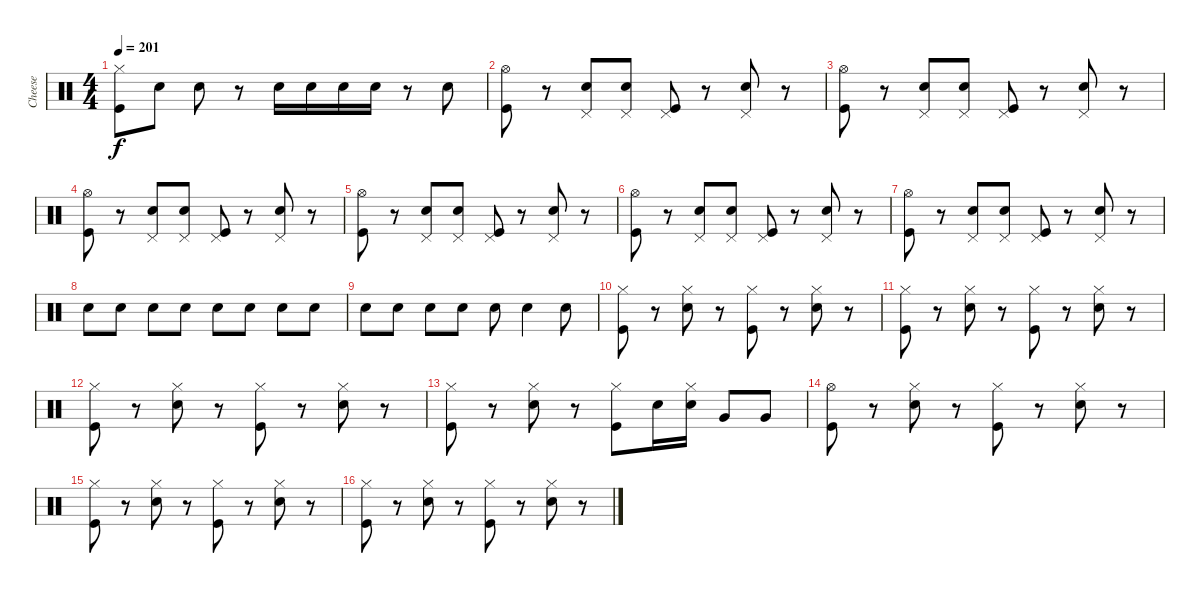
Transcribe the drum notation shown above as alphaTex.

\track ("Cheese" "Cheese") {instrument percussion}
\staff {score}
\articulation defaults
\ts (4 4)
\tempo 201
\clef neutral
\ks c
("Hi-Hat (closed)" "Kick (hit)").8{dy f} "Snare (hit) 2".8 "Snare (hit) 2".8 r.8 "Snare (hit) 2".16 "Snare (hit) 2".16 "Snare (hit) 2".16 "Snare (hit) 2".16 r.8 "Snare (hit) 2".8 |
("Hi-Hat (open)" "Kick (hit)").8 r.8 ("Pedal Hi-Hat (hit)" "Snare (hit) 2").8 ("Pedal Hi-Hat (hit)" "Snare (hit) 2").8 ("Pedal Hi-Hat (hit)" "Kick (hit)").8 r.8 ("Pedal Hi-Hat (hit)" "Snare (hit) 2").8 r.8 |
("Hi-Hat (open)" "Kick (hit)").8 r.8 ("Pedal Hi-Hat (hit)" "Snare (hit) 2").8 ("Pedal Hi-Hat (hit)" "Snare (hit) 2").8 ("Pedal Hi-Hat (hit)" "Kick (hit)").8 r.8 ("Pedal Hi-Hat (hit)" "Snare (hit) 2").8 r.8 |
("Hi-Hat (open)" "Kick (hit)").8 r.8 ("Pedal Hi-Hat (hit)" "Snare (hit) 2").8 ("Pedal Hi-Hat (hit)" "Snare (hit) 2").8 ("Pedal Hi-Hat (hit)" "Kick (hit)").8 r.8 ("Pedal Hi-Hat (hit)" "Snare (hit) 2").8 r.8 |
("Hi-Hat (open)" "Kick (hit)").8 r.8 ("Pedal Hi-Hat (hit)" "Snare (hit) 2").8 ("Pedal Hi-Hat (hit)" "Snare (hit) 2").8 ("Pedal Hi-Hat (hit)" "Kick (hit)").8 r.8 ("Pedal Hi-Hat (hit)" "Snare (hit) 2").8 r.8 |
("Hi-Hat (open)" "Kick (hit)").8 r.8 ("Pedal Hi-Hat (hit)" "Snare (hit) 2").8 ("Pedal Hi-Hat (hit)" "Snare (hit) 2").8 ("Pedal Hi-Hat (hit)" "Kick (hit)").8 r.8 ("Pedal Hi-Hat (hit)" "Snare (hit) 2").8 r.8 |
("Hi-Hat (open)" "Kick (hit)").8 r.8 ("Pedal Hi-Hat (hit)" "Snare (hit) 2").8 ("Pedal Hi-Hat (hit)" "Snare (hit) 2").8 ("Pedal Hi-Hat (hit)" "Kick (hit)").8 r.8 ("Pedal Hi-Hat (hit)" "Snare (hit) 2").8 r.8 |
"Snare (hit) 2".8 "Snare (hit) 2".8 "Snare (hit) 2".8 "Snare (hit) 2".8 "Snare (hit) 2".8 "Snare (hit) 2".8 "Snare (hit) 2".8 "Snare (hit) 2".8 |
"Snare (hit) 2".8 "Snare (hit) 2".8 "Snare (hit) 2".8 "Snare (hit) 2".8 "Snare (hit) 2".8 "Snare (hit) 2".4 "Snare (hit) 2".8 |
("Hi-Hat (closed)" "Kick (hit)").8 r.8 ("Hi-Hat (closed)" "Snare (hit) 2").8 r.8 ("Hi-Hat (closed)" "Kick (hit)").8 r.8 ("Hi-Hat (closed)" "Snare (hit) 2").8 r.8 |
("Hi-Hat (closed)" "Kick (hit)").8 r.8 ("Hi-Hat (closed)" "Snare (hit) 2").8 r.8 ("Hi-Hat (closed)" "Kick (hit)").8 r.8 ("Hi-Hat (closed)" "Snare (hit) 2").8 r.8 |
("Hi-Hat (closed)" "Kick (hit)").8 r.8 ("Hi-Hat (closed)" "Snare (hit) 2").8 r.8 ("Hi-Hat (closed)" "Kick (hit)").8 r.8 ("Hi-Hat (closed)" "Snare (hit) 2").8 r.8 |
("Hi-Hat (closed)" "Kick (hit)").8 r.8 ("Hi-Hat (closed)" "Snare (hit) 2").8 r.8 ("Hi-Hat (closed)" "Kick (hit)").8 "Snare (hit) 2".16 ("Hi-Hat (closed)" "Snare (hit) 2").16 "Very Low Tom (hit)".8 "Very Low Tom (hit)".8 |
("Hi-Hat (open)" "Kick (hit)").8 r.8 ("Hi-Hat (closed)" "Snare (hit) 2").8 r.8 ("Hi-Hat (closed)" "Kick (hit)").8 r.8 ("Hi-Hat (closed)" "Snare (hit) 2").8 r.8 |
("Hi-Hat (closed)" "Kick (hit)").8 r.8 ("Hi-Hat (closed)" "Snare (hit) 2").8 r.8 ("Hi-Hat (closed)" "Kick (hit)").8 r.8 ("Hi-Hat (closed)" "Snare (hit) 2").8 r.8 |
("Hi-Hat (closed)" "Kick (hit)").8 r.8 ("Hi-Hat (closed)" "Snare (hit) 2").8 r.8 ("Hi-Hat (closed)" "Kick (hit)").8 r.8 ("Hi-Hat (closed)" "Snare (hit) 2").8 r.8
